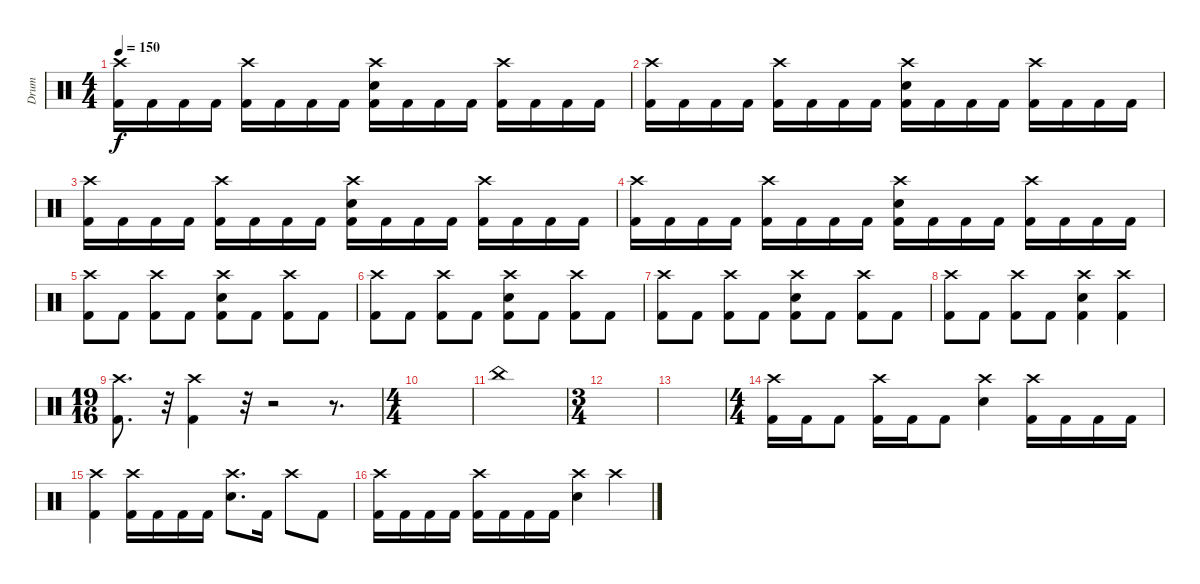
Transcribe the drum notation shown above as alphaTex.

\track ("Drum" "Drum") {instrument percussion}
\staff {score}
\articulation defaults
\ts (4 4)
\tempo 150
\clef neutral
\ks c
("Crash high (hit)" "Kick (hit) 2").16{dy f} "Kick (hit) 2".16 "Kick (hit) 2".16 "Kick (hit) 2".16 ("Crash high (hit)" "Kick (hit) 2").16 "Kick (hit) 2".16 "Kick (hit) 2".16 "Kick (hit) 2".16 ("Crash high (hit)" "Electric Snare (hit)" "Kick (hit) 2").16 "Kick (hit) 2".16 "Kick (hit) 2".16 "Kick (hit) 2".16 ("Crash high (hit)" "Kick (hit) 2").16 "Kick (hit) 2".16 "Kick (hit) 2".16 "Kick (hit) 2".16 |
("Crash high (hit)" "Kick (hit) 2").16 "Kick (hit) 2".16 "Kick (hit) 2".16 "Kick (hit) 2".16 ("Crash high (hit)" "Kick (hit) 2").16 "Kick (hit) 2".16 "Kick (hit) 2".16 "Kick (hit) 2".16 ("Crash high (hit)" "Electric Snare (hit)" "Kick (hit) 2").16 "Kick (hit) 2".16 "Kick (hit) 2".16 "Kick (hit) 2".16 ("Crash high (hit)" "Kick (hit) 2").16 "Kick (hit) 2".16 "Kick (hit) 2".16 "Kick (hit) 2".16 |
("Crash high (hit)" "Kick (hit) 2").16 "Kick (hit) 2".16 "Kick (hit) 2".16 "Kick (hit) 2".16 ("Crash high (hit)" "Kick (hit) 2").16 "Kick (hit) 2".16 "Kick (hit) 2".16 "Kick (hit) 2".16 ("Crash high (hit)" "Electric Snare (hit)" "Kick (hit) 2").16 "Kick (hit) 2".16 "Kick (hit) 2".16 "Kick (hit) 2".16 ("Crash high (hit)" "Kick (hit) 2").16 "Kick (hit) 2".16 "Kick (hit) 2".16 "Kick (hit) 2".16 |
("Crash high (hit)" "Kick (hit) 2").16 "Kick (hit) 2".16 "Kick (hit) 2".16 "Kick (hit) 2".16 ("Crash high (hit)" "Kick (hit) 2").16 "Kick (hit) 2".16 "Kick (hit) 2".16 "Kick (hit) 2".16 ("Crash high (hit)" "Electric Snare (hit)" "Kick (hit) 2").16 "Kick (hit) 2".16 "Kick (hit) 2".16 "Kick (hit) 2".16 ("Crash high (hit)" "Kick (hit) 2").16 "Kick (hit) 2".16 "Kick (hit) 2".16 "Kick (hit) 2".16 |
("Crash high (hit)" "Kick (hit) 2").8 "Kick (hit) 2".8 ("Crash high (hit)" "Kick (hit) 2").8 "Kick (hit) 2".8 ("Crash high (hit)" "Electric Snare (hit)" "Kick (hit) 2").8 "Kick (hit) 2".8 ("Crash high (hit)" "Kick (hit) 2").8 "Kick (hit) 2".8 |
("Crash high (hit)" "Kick (hit) 2").8 "Kick (hit) 2".8 ("Crash high (hit)" "Kick (hit) 2").8 "Kick (hit) 2".8 ("Crash high (hit)" "Electric Snare (hit)" "Kick (hit) 2").8 "Kick (hit) 2".8 ("Crash high (hit)" "Kick (hit) 2").8 "Kick (hit) 2".8 |
("Crash high (hit)" "Kick (hit) 2").8 "Kick (hit) 2".8 ("Crash high (hit)" "Kick (hit) 2").8 "Kick (hit) 2".8 ("Crash high (hit)" "Electric Snare (hit)" "Kick (hit) 2").8 "Kick (hit) 2".8 ("Crash high (hit)" "Kick (hit) 2").8 "Kick (hit) 2".8 |
("Crash high (hit)" "Kick (hit) 2").8 "Kick (hit) 2".8 ("Crash high (hit)" "Kick (hit) 2").8 "Kick (hit) 2".8 ("Crash high (hit)" "Electric Snare (hit)" "Kick (hit) 2").4 ("Crash high (hit)" "Kick (hit) 2").4 |
\ts (19 16)
("Crash high (hit)" "Kick (hit) 2").8{d} r.32 ("Crash high (hit)" "Kick (hit) 2").4 r.32 r.2 r.8{d} |
\ts (4 4)
|
"China (hit)".1 |
\ts (3 4)
|
|
\ts (4 4)
("Crash high (hit)" "Kick (hit) 2").16 "Kick (hit) 2".16 "Kick (hit) 2".8 ("Crash high (hit)" "Kick (hit) 2").16 "Kick (hit) 2".16 "Kick (hit) 2".8 ("Crash high (hit)" "Electric Snare (hit)").4 ("Crash high (hit)" "Kick (hit) 2").16 "Kick (hit) 2".16 "Kick (hit) 2".16 "Kick (hit) 2".16 |
("Crash high (hit)" "Kick (hit) 2").4 ("Crash high (hit)" "Kick (hit) 2").16 "Kick (hit) 2".16 "Kick (hit) 2".16 "Kick (hit) 2".16 ("Crash high (hit)" "Electric Snare (hit)").8{d} "Kick (hit) 2".16 "Crash high (hit)".8 "Kick (hit) 2".8 |
("Crash high (hit)" "Kick (hit) 2").16 "Kick (hit) 2".16 "Kick (hit) 2".16 "Kick (hit) 2".16 ("Crash high (hit)" "Kick (hit) 2").16 "Kick (hit) 2".16 "Kick (hit) 2".16 "Kick (hit) 2".16 ("Crash high (hit)" "Electric Snare (hit)").4 "Crash high (hit)".4
